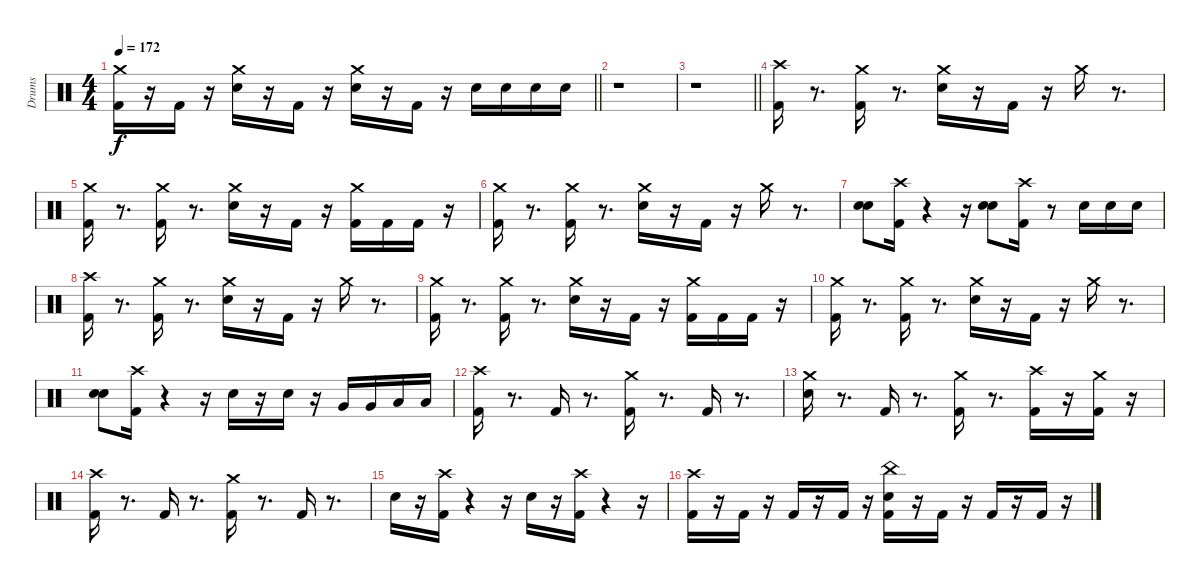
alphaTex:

\track ("Drums" "Drums") {instrument percussion}
\staff {score}
\articulation defaults
\ts (4 4)
\tempo 172
\clef neutral
\barLineRight lightlight
\ks c
("Kick (hit) 2" "Crash medium (hit)").16{dy f} r.16 "Kick (hit) 2".16 r.16 ("Snare (hit) 2" "Crash medium (hit)").16 r.16 "Kick (hit) 2".16 r.16 ("Snare (hit) 2" "Crash medium (hit)").16 r.16 "Kick (hit) 2".16 r.16 "Snare (hit) 2".16 "Snare (hit) 2".16 "Snare (hit) 2".16 "Snare (hit) 2".16 |
\section ("" " ")
r.1 |
\barLineRight lightlight
r.1 |
\section ("" " ")
("Kick (hit) 2" "Crash high (hit)").16 r.8{d} ("Kick (hit) 2" "Crash medium (hit)").16 r.8{d} ("Snare (hit) 2" "Crash medium (hit)").16 r.16 "Kick (hit) 2".16 r.16 "Crash medium (hit)".16 r.8{d} |
("Kick (hit) 2" "Crash medium (hit)").16 r.8{d} ("Kick (hit) 2" "Crash medium (hit)").16 r.8{d} ("Snare (hit) 2" "Crash medium (hit)").16 r.16 "Kick (hit) 2".16 r.16 ("Kick (hit) 2" "Crash medium (hit)").16 "Kick (hit) 2".16 "Kick (hit) 2".16 r.16 |
("Kick (hit) 2" "Crash medium (hit)").16 r.8{d} ("Kick (hit) 2" "Crash medium (hit)").16 r.8{d} ("Snare (hit) 2" "Crash medium (hit)").16 r.16 "Kick (hit) 2".16 r.16 "Crash medium (hit)".16 r.8{d} |
("Snare (hit) 2" "Snare (hit) 2").8 ("Kick (hit) 2" "Crash high (hit)").16 r.4 r.16 ("Snare (hit) 2" "Snare (hit) 2").8 ("Kick (hit) 2" "Crash high (hit)").16 r.8 "Snare (hit) 2".16 "Snare (hit) 2".16 "Snare (hit) 2".16 |
("Kick (hit) 2" "Crash high (hit)").16 r.8{d} ("Kick (hit) 2" "Crash medium (hit)").16 r.8{d} ("Snare (hit) 2" "Crash medium (hit)").16 r.16 "Kick (hit) 2".16 r.16 "Crash medium (hit)".16 r.8{d} |
("Kick (hit) 2" "Crash medium (hit)").16 r.8{d} ("Kick (hit) 2" "Crash medium (hit)").16 r.8{d} ("Snare (hit) 2" "Crash medium (hit)").16 r.16 "Kick (hit) 2".16 r.16 ("Kick (hit) 2" "Crash medium (hit)").16 "Kick (hit) 2".16 "Kick (hit) 2".16 r.16 |
("Kick (hit) 2" "Crash medium (hit)").16 r.8{d} ("Kick (hit) 2" "Crash medium (hit)").16 r.8{d} ("Snare (hit) 2" "Crash medium (hit)").16 r.16 "Kick (hit) 2".16 r.16 "Crash medium (hit)".16 r.8{d} |
("Snare (hit) 2" "Snare (hit) 2").8 ("Kick (hit) 2" "Crash high (hit)").16 r.4 r.16 "Snare (hit) 2".16 r.16 "Snare (hit) 2".16 r.16 "Very Low Tom (hit)".16 "Very Low Tom (hit)".16 "Low Floor Tom (hit)".16 "Low Floor Tom (hit)".16 |
("Kick (hit) 2" "Crash high (hit)").16 r.8{d} "Kick (hit) 2".16 r.8{d} ("Kick (hit) 2" "Crash medium (hit)").16 r.8{d} "Kick (hit) 2".16 r.8{d} |
("Snare (hit) 2" "Crash medium (hit)").16 r.8{d} "Kick (hit) 2".16 r.8{d} ("Kick (hit) 2" "Crash medium (hit)").16 r.8{d} ("Kick (hit) 2" "Crash high (hit)").16 r.16 ("Kick (hit) 2" "Crash medium (hit)").16 r.16 |
("Kick (hit) 2" "Crash high (hit)").16 r.8{d} "Kick (hit) 2".16 r.8{d} ("Kick (hit) 2" "Crash medium (hit)").16 r.8{d} "Kick (hit) 2".16 r.8{d} |
"Snare (hit) 2".16 r.16 ("Kick (hit) 2" "Crash high (hit)").16 r.4 r.16 "Snare (hit) 2".16 r.16 ("Kick (hit) 2" "Crash high (hit)").16 r.4 r.16 |
("Kick (hit) 2" "Crash high (hit)").16 r.16 "Kick (hit) 2".16 r.16 "Kick (hit) 2".16 r.16 "Kick (hit) 2".16 r.16 ("Kick (hit) 2" "Snare (hit) 2" "China (hit)").16 r.16 "Kick (hit) 2".16 r.16 "Kick (hit) 2".16 r.16 "Kick (hit) 2".16 r.16
